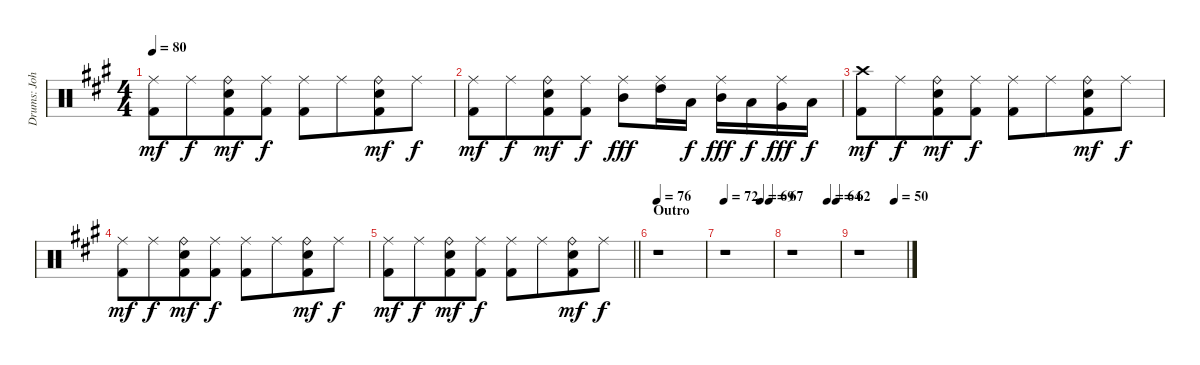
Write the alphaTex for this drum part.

\track ("Drums: John Wilcox" "Drums: Joh") {instrument percussion}
\staff {score}
\articulation defaults
\ts (4 4)
\tempo 80
\clef neutral
\ks a
("Ride (middle)" "Kick (hit) 2").8{dy mf} "Ride (middle)".8{dy f beam merge} ("Ride (bell)" "Snare (hit) 2" "Kick (hit) 2").8{dy mf} ("Ride (middle)" "Kick (hit) 2").8{dy f} ("Ride (middle)" "Kick (hit) 2").8 "Ride (middle)".8{beam merge} ("Ride (bell)" "Snare (hit) 2" "Kick (hit) 2").8{dy mf} "Ride (middle)".8{dy f} |
("Ride (middle)" "Kick (hit) 2").8{dy mf} "Ride (middle)".8{dy f beam merge} ("Ride (bell)" "Snare (hit) 2" "Kick (hit) 2").8{dy mf} ("Ride (middle)" "Kick (hit) 2").8{dy f} ("Ride (middle)" "Mid Tom (hit)").8{dy fff} ("Ride (middle)" "High Tom (hit)").16 "Low Tom (hit)".16{dy f} ("Ride (middle)" "Mid Tom (hit)").16{dy fff} "Low Tom (hit)".16{dy f} ("Ride (middle)" "Very Low Tom (hit)").16{dy fff} "Low Floor Tom (hit)".16{dy f} |
("Crash high (hit)" "Kick (hit) 2").8{dy mf} "Ride (middle)".8{dy f beam merge} ("Ride (bell)" "Snare (hit) 2" "Kick (hit) 2").8{dy mf} ("Ride (middle)" "Kick (hit) 2").8{dy f} ("Ride (middle)" "Kick (hit) 2").8 "Ride (middle)".8{beam merge} ("Ride (bell)" "Snare (hit) 2" "Kick (hit) 2").8{dy mf} "Ride (middle)".8{dy f} |
("Ride (middle)" "Kick (hit) 2").8{dy mf} "Ride (middle)".8{dy f beam merge} ("Ride (bell)" "Snare (hit) 2" "Kick (hit) 2").8{dy mf} ("Ride (middle)" "Kick (hit) 2").8{dy f} ("Ride (middle)" "Kick (hit) 2").8 "Ride (middle)".8{beam merge} ("Ride (bell)" "Snare (hit) 2" "Kick (hit) 2").8{dy mf} "Ride (middle)".8{dy f} |
\barLineRight lightlight
("Ride (middle)" "Kick (hit) 2").8{dy mf} "Ride (middle)".8{dy f beam merge} ("Ride (bell)" "Snare (hit) 2" "Kick (hit) 2").8{dy mf} ("Ride (middle)" "Kick (hit) 2").8{dy f} ("Ride (middle)" "Kick (hit) 2").8 "Ride (middle)".8{beam merge} ("Ride (bell)" "Snare (hit) 2" "Kick (hit) 2").8{dy mf} "Ride (middle)".8{dy f} |
\section ("" "Outro")
\tempo 76
r.1 |
\tempo 72
\tempo (69 0.75)
\tempo (67 0.9375)
r.1 |
\tempo (64 0.75)
\tempo (62 0.9375)
r.1 |
\tempo (50 0.75)
r.1
